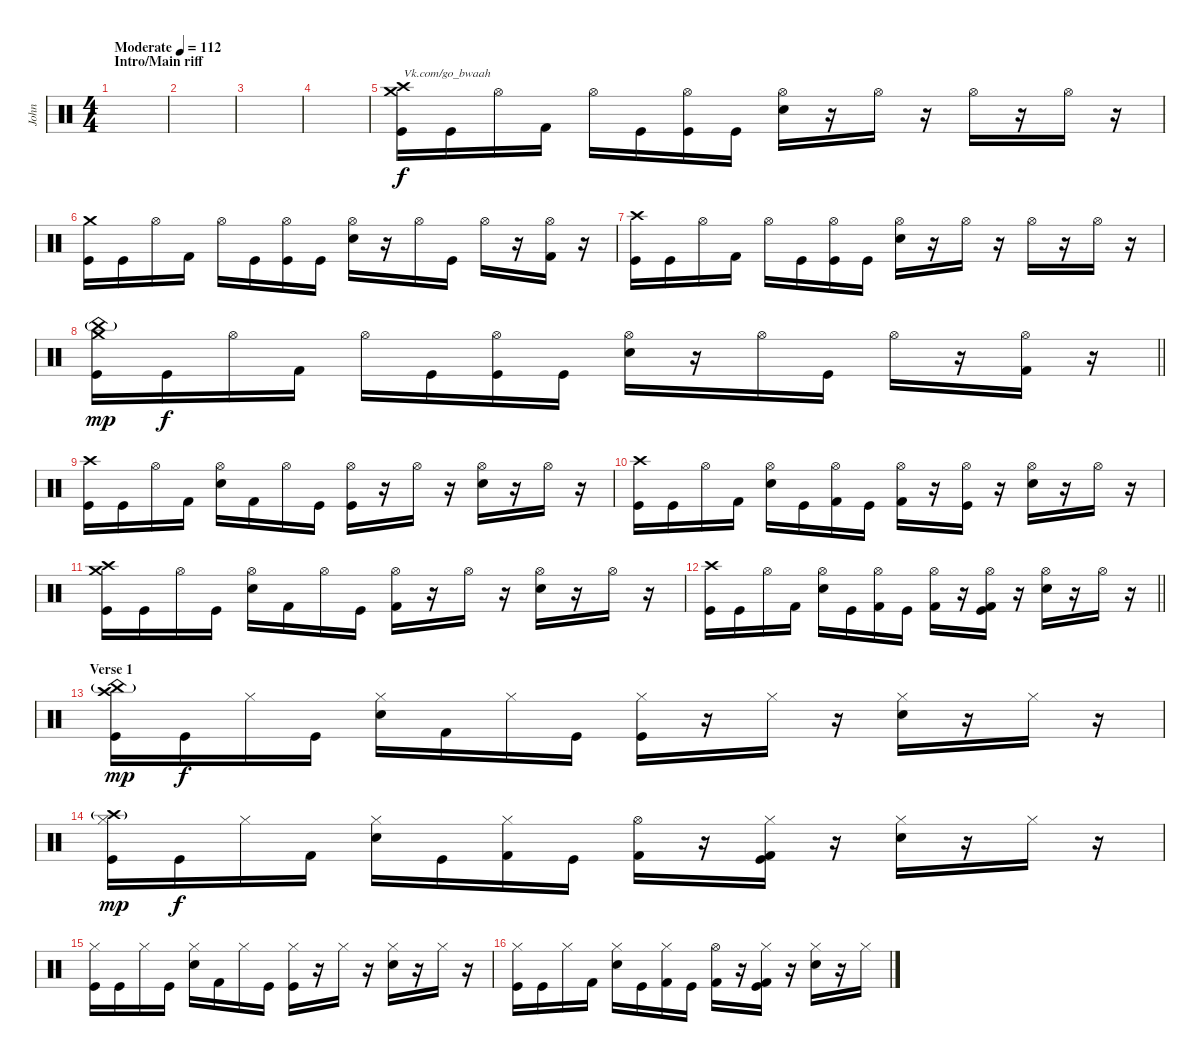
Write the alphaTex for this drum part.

\track ("John" "John") {instrument percussion}
\staff {score}
\articulation defaults
\ts (4 4)
\section ("" "Intro/Main riff")
\tempo (112 "Moderate")
\clef neutral
\ks c
|
|
|
|
("Crash medium (hit)" "Crash high (hit)" "Kick (hit)").16{txt "Vk.com/go_bwaah"} "Kick (hit)".16 "Hi-Hat (open)".16 "Kick (hit) 2".16 "Hi-Hat (open)".16 "Kick (hit)".16 ("Hi-Hat (open)" "Kick (hit)").16 "Kick (hit)".16 ("Hi-Hat (open)" "Electric Snare (hit)").16 r.16 "Hi-Hat (open)".16 r.16 "Hi-Hat (open)".16 r.16 "Hi-Hat (open)".16 r.16 |
("Crash medium (hit)" "Kick (hit)").16 "Kick (hit)".16 "Hi-Hat (open)".16 "Kick (hit) 2".16 "Hi-Hat (open)".16 "Kick (hit)".16 ("Hi-Hat (open)" "Kick (hit)").16 "Kick (hit)".16 ("Hi-Hat (open)" "Electric Snare (hit)").16 r.16 "Hi-Hat (open)".16 "Kick (hit)".16 "Hi-Hat (open)".16 r.16 ("Hi-Hat (open)" "Kick (hit) 2").16 r.16 |
("Crash high (hit)" "Kick (hit)").16 "Kick (hit)".16 "Hi-Hat (open)".16 "Kick (hit) 2".16 "Hi-Hat (open)".16 "Kick (hit)".16 ("Hi-Hat (open)" "Kick (hit)").16 "Kick (hit)".16 ("Hi-Hat (open)" "Electric Snare (hit)").16 r.16 "Hi-Hat (open)".16 r.16 "Hi-Hat (open)".16 r.16 "Hi-Hat (open)".16 r.16 |
\barLineRight lightlight
("Crash medium (hit)" "China (hit)"{g} "Kick (hit)").16{dy mp} "Kick (hit)".16{dy f} "Hi-Hat (open)".16 "Kick (hit) 2".16 "Hi-Hat (open)".16 "Kick (hit)".16 ("Hi-Hat (open)" "Kick (hit)").16 "Kick (hit)".16 ("Hi-Hat (open)" "Electric Snare (hit)").16 r.16 "Hi-Hat (open)".16 "Kick (hit)".16 "Hi-Hat (open)".16 r.16 ("Hi-Hat (open)" "Kick (hit) 2").16 r.16 |
\section ("" "")
("Crash high (hit)" "Kick (hit)").16 "Kick (hit)".16 "Hi-Hat (open)".16 "Kick (hit) 2".16 ("Hi-Hat (open)" "Electric Snare (hit)").16 "Kick (hit) 2".16 "Hi-Hat (open)".16 "Kick (hit)".16 ("Hi-Hat (open)" "Kick (hit)").16 r.16 "Hi-Hat (open)".16 r.16 ("Hi-Hat (open)" "Electric Snare (hit)").16 r.16 "Hi-Hat (open)".16 r.16 |
("Crash high (hit)" "Kick (hit)").16 "Kick (hit)".16 "Hi-Hat (open)".16 "Kick (hit) 2".16 ("Hi-Hat (open)" "Electric Snare (hit)").16 "Kick (hit)".16 ("Hi-Hat (open)" "Kick (hit) 2").16 "Kick (hit)".16 ("Hi-Hat (open)" "Kick (hit) 2").16 r.16 ("Hi-Hat (open)" "Kick (hit)").16 r.16 ("Hi-Hat (open)" "Electric Snare (hit)").16 r.16 "Hi-Hat (open)".16 r.16 |
("Crash medium (hit)" "Crash high (hit)" "Kick (hit)").16 "Kick (hit)".16 "Hi-Hat (open)".16 "Kick (hit)".16 ("Hi-Hat (open)" "Electric Snare (hit)").16 "Kick (hit) 2".16 "Hi-Hat (open)".16 "Kick (hit)".16 ("Hi-Hat (open)" "Kick (hit) 2").16 r.16 "Hi-Hat (open)".16 r.16 ("Hi-Hat (open)" "Electric Snare (hit)").16 r.16 "Hi-Hat (open)".16 r.16 |
\barLineRight lightlight
("Crash high (hit)" "Kick (hit)").16 "Kick (hit)".16 "Hi-Hat (open)".16 "Kick (hit) 2".16 ("Hi-Hat (open)" "Electric Snare (hit)").16 "Kick (hit)".16 ("Hi-Hat (open)" "Kick (hit) 2").16 "Kick (hit)".16 ("Hi-Hat (open)" "Kick (hit) 2").16 r.16 ("Hi-Hat (open)" "Kick (hit) 2" "Kick (hit)").16 r.16 ("Hi-Hat (open)" "Electric Snare (hit)").16 r.16 "Hi-Hat (open)".16 r.16 |
\section ("" "Verse 1")
("Crash high (hit)" "China (hit)"{g} "Kick (hit)").16{dy mp} "Kick (hit)".16{dy f} "Hi-Hat (closed)".16 "Kick (hit)".16 ("Hi-Hat (closed)" "Electric Snare (hit)").16 "Kick (hit) 2".16 "Hi-Hat (closed)".16 "Kick (hit)".16 ("Hi-Hat (closed)" "Kick (hit)").16 r.16 "Hi-Hat (closed)".16 r.16 ("Hi-Hat (closed)" "Electric Snare (hit)").16 r.16 "Hi-Hat (closed)".16 r.16 |
("Hi-Hat (closed)" "Crash high (hit)"{g} "Kick (hit)").16{dy mp} "Kick (hit)".16{dy f} "Hi-Hat (closed)".16 "Kick (hit) 2".16 ("Hi-Hat (closed)" "Electric Snare (hit)").16 "Kick (hit)".16 ("Hi-Hat (closed)" "Kick (hit) 2").16 "Kick (hit)".16 ("Hi-Hat (open)" "Kick (hit) 2").16 r.16 ("Hi-Hat (closed)" "Kick (hit) 2" "Kick (hit)").16 r.16 ("Hi-Hat (closed)" "Electric Snare (hit)").16 r.16 "Hi-Hat (closed)".16 r.16 |
("Hi-Hat (closed)" "Kick (hit)").16 "Kick (hit)".16 "Hi-Hat (closed)".16 "Kick (hit)".16 ("Hi-Hat (closed)" "Electric Snare (hit)").16 "Kick (hit) 2".16 "Hi-Hat (closed)".16 "Kick (hit)".16 ("Hi-Hat (closed)" "Kick (hit)").16 r.16 "Hi-Hat (closed)".16 r.16 ("Hi-Hat (closed)" "Electric Snare (hit)").16 r.16 "Hi-Hat (closed)".16 r.16 |
("Hi-Hat (closed)" "Kick (hit)").16 "Kick (hit)".16 "Hi-Hat (closed)".16 "Kick (hit) 2".16 ("Hi-Hat (closed)" "Electric Snare (hit)").16 "Kick (hit)".16 ("Hi-Hat (closed)" "Kick (hit) 2").16 "Kick (hit)".16 ("Hi-Hat (open)" "Kick (hit) 2").16 r.16 ("Hi-Hat (closed)" "Kick (hit) 2" "Kick (hit)").16 r.16 ("Hi-Hat (closed)" "Electric Snare (hit)").16 r.16 "Hi-Hat (closed)".16
